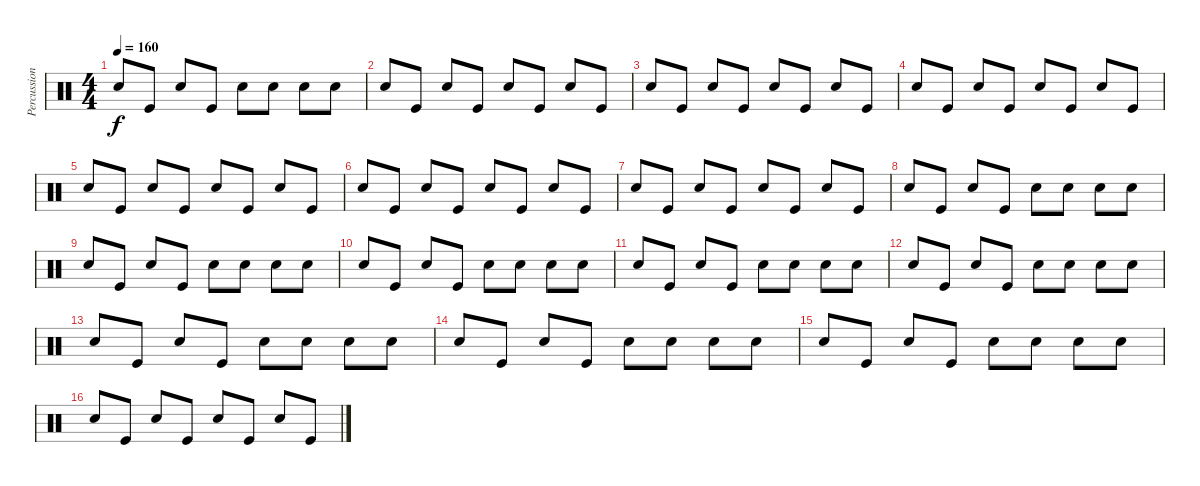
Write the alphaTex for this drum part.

\track ("Percussions" "Percussion") {instrument percussion}
\staff {score}
\articulation defaults
\ts (4 4)
\tempo 160
\clef neutral
\ks c "Snare (hit) 2".8{dy f} "Kick (hit)".8 "Snare (hit) 2".8 "Kick (hit)".8 "Snare (hit) 2".8 "Hand Clap (hit)".8 "Hand Clap (hit)".8 "Hand Clap (hit)".8
|
"Snare (hit) 2".8 "Kick (hit)".8 "Snare (hit) 2".8 "Kick (hit)".8 "Snare (hit) 2".8 "Kick (hit)".8 "Snare (hit) 2".8 "Kick (hit)".8 |
"Snare (hit) 2".8 "Kick (hit)".8 "Snare (hit) 2".8 "Kick (hit)".8 "Snare (hit) 2".8 "Kick (hit)".8 "Snare (hit) 2".8 "Kick (hit)".8 |
"Snare (hit) 2".8 "Kick (hit)".8 "Snare (hit) 2".8 "Kick (hit)".8 "Snare (hit) 2".8 "Kick (hit)".8 "Snare (hit) 2".8 "Kick (hit)".8 |
"Snare (hit) 2".8 "Kick (hit)".8 "Snare (hit) 2".8 "Kick (hit)".8 "Snare (hit) 2".8 "Kick (hit)".8 "Snare (hit) 2".8 "Kick (hit)".8 |
"Snare (hit) 2".8 "Kick (hit)".8 "Snare (hit) 2".8 "Kick (hit)".8 "Snare (hit) 2".8 "Kick (hit)".8 "Snare (hit) 2".8 "Kick (hit)".8 |
"Snare (hit) 2".8 "Kick (hit)".8 "Snare (hit) 2".8 "Kick (hit)".8 "Snare (hit) 2".8 "Kick (hit)".8 "Snare (hit) 2".8 "Kick (hit)".8 |
"Snare (hit) 2".8 "Kick (hit)".8 "Snare (hit) 2".8 "Kick (hit)".8 "Snare (hit) 2".8 "Hand Clap (hit)".8 "Hand Clap (hit)".8 "Hand Clap (hit)".8 |
"Snare (hit) 2".8 "Kick (hit)".8 "Snare (hit) 2".8 "Kick (hit)".8 "Snare (hit) 2".8 "Hand Clap (hit)".8 "Hand Clap (hit)".8 "Hand Clap (hit)".8 |
"Snare (hit) 2".8 "Kick (hit)".8 "Snare (hit) 2".8 "Kick (hit)".8 "Snare (hit) 2".8 "Hand Clap (hit)".8 "Hand Clap (hit)".8 "Hand Clap (hit)".8 |
"Snare (hit) 2".8 "Kick (hit)".8 "Snare (hit) 2".8 "Kick (hit)".8 "Snare (hit) 2".8 "Hand Clap (hit)".8 "Hand Clap (hit)".8 "Hand Clap (hit)".8 |
"Snare (hit) 2".8 "Kick (hit)".8 "Snare (hit) 2".8 "Kick (hit)".8 "Snare (hit) 2".8 "Hand Clap (hit)".8 "Hand Clap (hit)".8 "Hand Clap (hit)".8 |
"Snare (hit) 2".8 "Kick (hit)".8 "Snare (hit) 2".8 "Kick (hit)".8 "Snare (hit) 2".8 "Hand Clap (hit)".8 "Hand Clap (hit)".8 "Hand Clap (hit)".8 |
"Snare (hit) 2".8 "Kick (hit)".8 "Snare (hit) 2".8 "Kick (hit)".8 "Snare (hit) 2".8 "Hand Clap (hit)".8 "Hand Clap (hit)".8 "Hand Clap (hit)".8 |
"Snare (hit) 2".8 "Kick (hit)".8 "Snare (hit) 2".8 "Kick (hit)".8 "Snare (hit) 2".8 "Hand Clap (hit)".8 "Hand Clap (hit)".8 "Hand Clap (hit)".8 |
"Snare (hit) 2".8 "Kick (hit)".8 "Snare (hit) 2".8 "Kick (hit)".8 "Snare (hit) 2".8 "Kick (hit)".8 "Snare (hit) 2".8 "Kick (hit)".8
